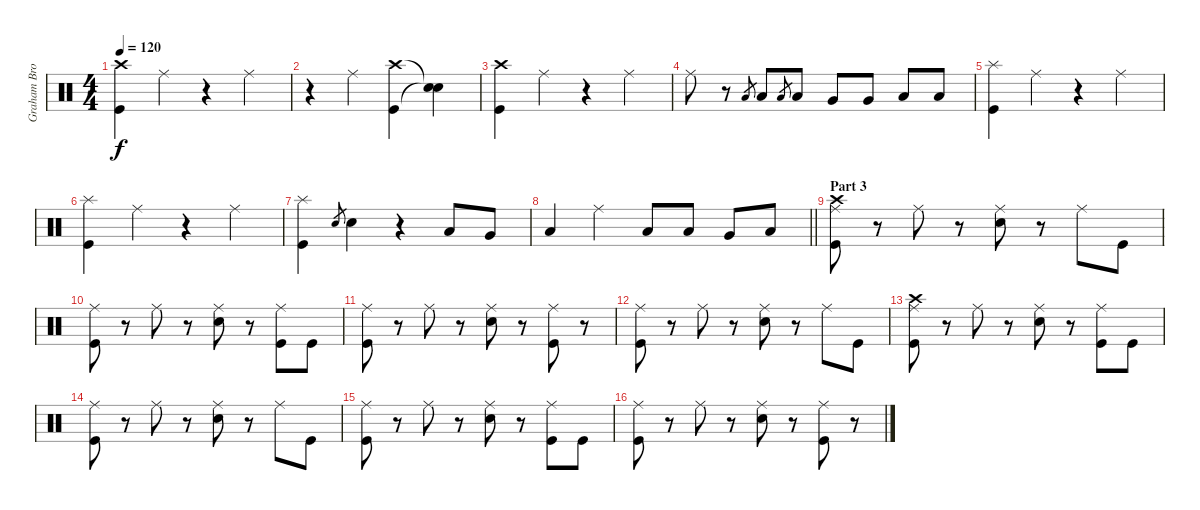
\track ("Graham Broad (Drums)" "Graham Bro") {instrument percussion}
\staff {score}
\articulation defaults
\ts (4 4)
\tempo 120
\clef neutral
\ks c
("Crash high (hit)" "Kick (hit)").4{dy f} "Ride (middle)".4 r.4 "Ride (middle)".4 |
r.4 "Ride (middle)".4 ("Crash high (hit)" "Kick (hit)").4 ("Snare (hit)"{t} "Snare (hit)"{t}).4 |
("Crash high (hit)" "Kick (hit)").4 "Ride (middle)".4 r.4 "Ride (middle)".4 |
"Ride (middle)".8 r.8 "Low Tom (hit)".8{gr} "Low Tom (hit)".8 "Low Tom (hit)".8{gr} "Low Tom (hit)".8 "Very Low Tom (hit)".8 "Very Low Tom (hit)".8 "Low Floor Tom (hit)".8 "Low Floor Tom (hit)".8 |
("Splash (hit)" "Kick (hit)").4 "Ride (middle)".4 r.4 "Ride (middle)".4 |
("Splash (hit)" "Kick (hit)").4 "Ride (middle)".4 r.4 "Ride (middle)".4 |
("Splash (hit)" "Kick (hit)").4 "Snare (hit) 2".8{gr} "Snare (hit) 2".4 r.4 "Low Tom (hit)".8 "Very Low Tom (hit)".8 |
\barLineRight lightlight "Low Floor Tom (hit)".4 "Ride (middle)".4 "Low Tom (hit)".8 "Low Tom (hit)".8 "Very Low Tom (hit)".8 "Low Floor Tom (hit)".8
|
\section ("" "Part 3")
("Crash high (hit)" "Ride (middle)" "Kick (hit)").8 r.8 "Ride (middle)".8 r.8 ("Ride (middle)" "Snare (hit) 2").8 r.8 "Ride (middle)".8 "Kick (hit)".8 |
("Ride (middle)" "Kick (hit)").8 r.8 "Ride (middle)".8 r.8 ("Ride (middle)" "Snare (hit) 2").8 r.8 ("Ride (middle)" "Kick (hit)").8 "Kick (hit)".8 |
("Ride (middle)" "Kick (hit)").8 r.8 "Ride (middle)".8 r.8 ("Ride (middle)" "Snare (hit) 2").8 r.8 ("Ride (middle)" "Kick (hit)").8 r.8 |
("Ride (middle)" "Kick (hit)").8 r.8 "Ride (middle)".8 r.8 ("Ride (middle)" "Snare (hit) 2").8 r.8 "Ride (middle)".8 "Kick (hit)".8 |
("Crash high (hit)" "Ride (middle)" "Kick (hit)").8 r.8 "Ride (middle)".8 r.8 ("Ride (middle)" "Snare (hit) 2").8 r.8 ("Ride (middle)" "Kick (hit)").8 "Kick (hit)".8 |
("Ride (middle)" "Kick (hit)").8 r.8 "Ride (middle)".8 r.8 ("Ride (middle)" "Snare (hit) 2").8 r.8 "Ride (middle)".8 "Kick (hit)".8 |
("Ride (middle)" "Kick (hit)").8 r.8 "Ride (middle)".8 r.8 ("Ride (middle)" "Snare (hit) 2").8 r.8 ("Ride (middle)" "Kick (hit)").8 "Kick (hit)".8 |
("Ride (middle)" "Kick (hit)").8 r.8 "Ride (middle)".8 r.8 ("Ride (middle)" "Snare (hit) 2").8 r.8 ("Ride (middle)" "Kick (hit)").8 r.8
